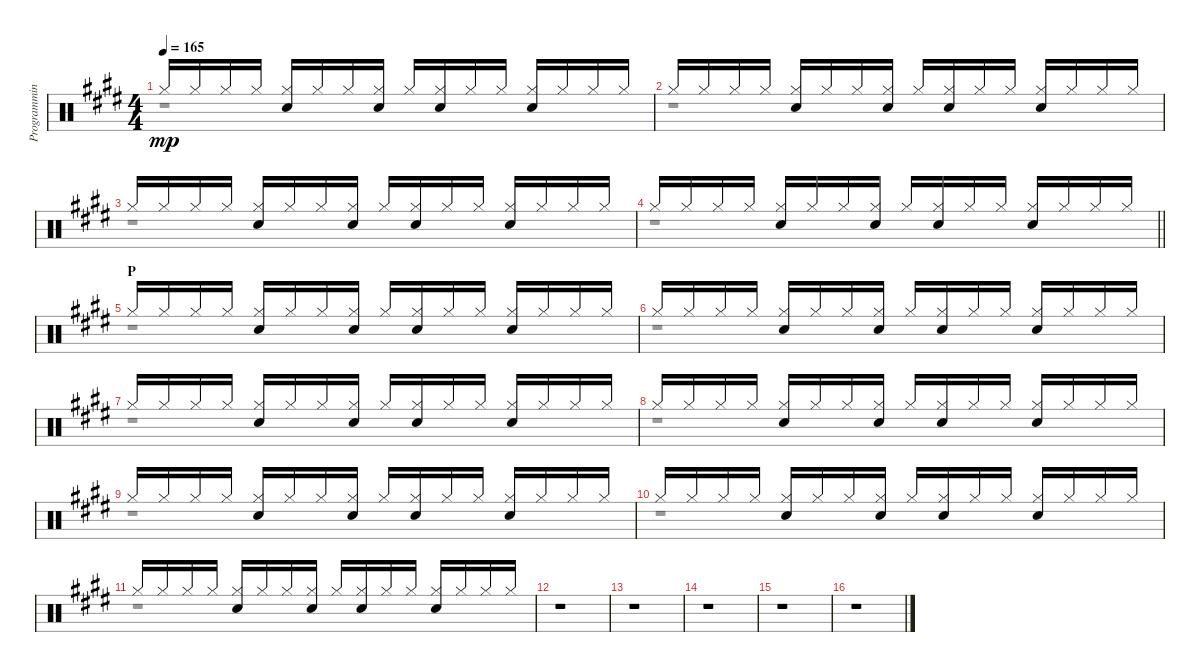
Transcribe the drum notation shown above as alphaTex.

\track ("Programming I" "Programmin") {instrument percussion}
\staff {score}
\articulation defaults
\voice
\ts (4 4)
\tempo 165
\clef neutral
\ks e "Hi-Hat (closed)".16{dy mp} "Hi-Hat (closed)".16 "Hi-Hat (closed)".16 "Hi-Hat (closed)".16
("Hi-Hat (closed)" "Electric Snare (hit)").16 "Hi-Hat (closed)".16 "Hi-Hat (closed)".16 ("Hi-Hat (closed)" "Electric Snare (hit)").16 "Hi-Hat (closed)".16 ("Hi-Hat (closed)" "Electric Snare (hit)").16 "Hi-Hat (closed)".16 "Hi-Hat (closed)".16 ("Hi-Hat (closed)" "Electric Snare (hit)").16 "Hi-Hat (closed)".16 "Hi-Hat (closed)".16 "Hi-Hat (closed)".16 |
"Hi-Hat (closed)".16 "Hi-Hat (closed)".16 "Hi-Hat (closed)".16 "Hi-Hat (closed)".16 ("Hi-Hat (closed)" "Electric Snare (hit)").16 "Hi-Hat (closed)".16 "Hi-Hat (closed)".16 ("Hi-Hat (closed)" "Electric Snare (hit)").16 "Hi-Hat (closed)".16 ("Hi-Hat (closed)" "Electric Snare (hit)").16 "Hi-Hat (closed)".16 "Hi-Hat (closed)".16 ("Hi-Hat (closed)" "Electric Snare (hit)").16 "Hi-Hat (closed)".16 "Hi-Hat (closed)".16 "Hi-Hat (closed)".16 |
"Hi-Hat (closed)".16 "Hi-Hat (closed)".16 "Hi-Hat (closed)".16 "Hi-Hat (closed)".16 ("Hi-Hat (closed)" "Electric Snare (hit)").16 "Hi-Hat (closed)".16 "Hi-Hat (closed)".16 ("Hi-Hat (closed)" "Electric Snare (hit)").16 "Hi-Hat (closed)".16 ("Hi-Hat (closed)" "Electric Snare (hit)").16 "Hi-Hat (closed)".16 "Hi-Hat (closed)".16 ("Hi-Hat (closed)" "Electric Snare (hit)").16 "Hi-Hat (closed)".16 "Hi-Hat (closed)".16 "Hi-Hat (closed)".16 |
\barLineRight lightlight "Hi-Hat (closed)".16 "Hi-Hat (closed)".16 "Hi-Hat (closed)".16 "Hi-Hat (closed)".16
("Hi-Hat (closed)" "Electric Snare (hit)").16 "Hi-Hat (closed)".16 "Hi-Hat (closed)".16 ("Hi-Hat (closed)" "Electric Snare (hit)").16 "Hi-Hat (closed)".16 ("Hi-Hat (closed)" "Electric Snare (hit)").16 "Hi-Hat (closed)".16 "Hi-Hat (closed)".16 ("Hi-Hat (closed)" "Electric Snare (hit)").16 "Hi-Hat (closed)".16 "Hi-Hat (closed)".16 "Hi-Hat (closed)".16 |
\section ("" "P")
"Hi-Hat (closed)".16 "Hi-Hat (closed)".16 "Hi-Hat (closed)".16 "Hi-Hat (closed)".16 ("Hi-Hat (closed)" "Electric Snare (hit)").16 "Hi-Hat (closed)".16 "Hi-Hat (closed)".16 ("Hi-Hat (closed)" "Electric Snare (hit)").16 "Hi-Hat (closed)".16 ("Hi-Hat (closed)" "Electric Snare (hit)").16 "Hi-Hat (closed)".16 "Hi-Hat (closed)".16 ("Hi-Hat (closed)" "Electric Snare (hit)").16 "Hi-Hat (closed)".16 "Hi-Hat (closed)".16 "Hi-Hat (closed)".16 |
"Hi-Hat (closed)".16 "Hi-Hat (closed)".16 "Hi-Hat (closed)".16 "Hi-Hat (closed)".16 ("Hi-Hat (closed)" "Electric Snare (hit)").16 "Hi-Hat (closed)".16 "Hi-Hat (closed)".16 ("Hi-Hat (closed)" "Electric Snare (hit)").16 "Hi-Hat (closed)".16 ("Hi-Hat (closed)" "Electric Snare (hit)").16 "Hi-Hat (closed)".16 "Hi-Hat (closed)".16 ("Hi-Hat (closed)" "Electric Snare (hit)").16 "Hi-Hat (closed)".16 "Hi-Hat (closed)".16 "Hi-Hat (closed)".16 |
"Hi-Hat (closed)".16 "Hi-Hat (closed)".16 "Hi-Hat (closed)".16 "Hi-Hat (closed)".16 ("Hi-Hat (closed)" "Electric Snare (hit)").16 "Hi-Hat (closed)".16 "Hi-Hat (closed)".16 ("Hi-Hat (closed)" "Electric Snare (hit)").16 "Hi-Hat (closed)".16 ("Hi-Hat (closed)" "Electric Snare (hit)").16 "Hi-Hat (closed)".16 "Hi-Hat (closed)".16 ("Hi-Hat (closed)" "Electric Snare (hit)").16 "Hi-Hat (closed)".16 "Hi-Hat (closed)".16 "Hi-Hat (closed)".16 |
"Hi-Hat (closed)".16 "Hi-Hat (closed)".16 "Hi-Hat (closed)".16 "Hi-Hat (closed)".16 ("Hi-Hat (closed)" "Electric Snare (hit)").16 "Hi-Hat (closed)".16 "Hi-Hat (closed)".16 ("Hi-Hat (closed)" "Electric Snare (hit)").16 "Hi-Hat (closed)".16 ("Hi-Hat (closed)" "Electric Snare (hit)").16 "Hi-Hat (closed)".16 "Hi-Hat (closed)".16 ("Hi-Hat (closed)" "Electric Snare (hit)").16 "Hi-Hat (closed)".16 "Hi-Hat (closed)".16 "Hi-Hat (closed)".16 |
"Hi-Hat (closed)".16 "Hi-Hat (closed)".16 "Hi-Hat (closed)".16 "Hi-Hat (closed)".16 ("Hi-Hat (closed)" "Electric Snare (hit)").16 "Hi-Hat (closed)".16 "Hi-Hat (closed)".16 ("Hi-Hat (closed)" "Electric Snare (hit)").16 "Hi-Hat (closed)".16 ("Hi-Hat (closed)" "Electric Snare (hit)").16 "Hi-Hat (closed)".16 "Hi-Hat (closed)".16 ("Hi-Hat (closed)" "Electric Snare (hit)").16 "Hi-Hat (closed)".16 "Hi-Hat (closed)".16 "Hi-Hat (closed)".16 |
"Hi-Hat (closed)".16 "Hi-Hat (closed)".16 "Hi-Hat (closed)".16 "Hi-Hat (closed)".16 ("Hi-Hat (closed)" "Electric Snare (hit)").16 "Hi-Hat (closed)".16 "Hi-Hat (closed)".16 ("Hi-Hat (closed)" "Electric Snare (hit)").16 "Hi-Hat (closed)".16 ("Hi-Hat (closed)" "Electric Snare (hit)").16 "Hi-Hat (closed)".16 "Hi-Hat (closed)".16 ("Hi-Hat (closed)" "Electric Snare (hit)").16 "Hi-Hat (closed)".16 "Hi-Hat (closed)".16 "Hi-Hat (closed)".16 |
"Hi-Hat (closed)".16 "Hi-Hat (closed)".16 "Hi-Hat (closed)".16 "Hi-Hat (closed)".16 ("Hi-Hat (closed)" "Electric Snare (hit)").16 "Hi-Hat (closed)".16 "Hi-Hat (closed)".16 ("Hi-Hat (closed)" "Electric Snare (hit)").16 "Hi-Hat (closed)".16 ("Hi-Hat (closed)" "Electric Snare (hit)").16 "Hi-Hat (closed)".16 "Hi-Hat (closed)".16 ("Hi-Hat (closed)" "Electric Snare (hit)").16 "Hi-Hat (closed)".16 "Hi-Hat (closed)".16 "Hi-Hat (closed)".16 |
r.1 |
r.1 |
r.1 |
r.1 |
r.1
\voice
\clef neutral
\ottava regular
\simile none
\ks e
r.1{dy mp} |
r.1 |
r.1 |
\barLineRight lightlight
r.1 |
r.1 |
r.1 |
r.1 |
r.1 |
r.1 |
r.1 |
r.1 |
r.1 |
r.1 |
r.1 |
r.1 |
r.1
